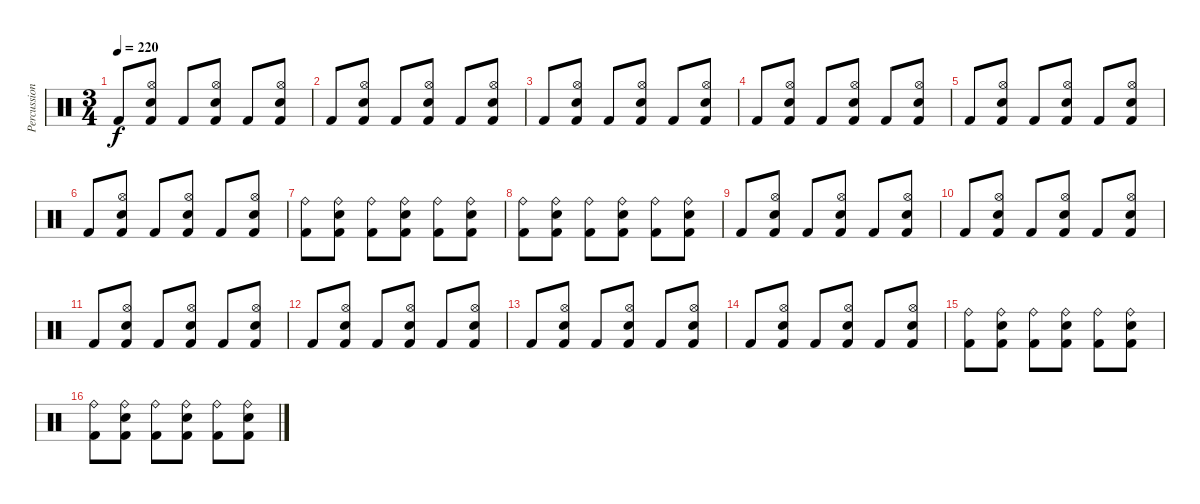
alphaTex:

\track ("Percussion" "Percussion") {instrument percussion}
\staff {score}
\articulation defaults
\ts (3 4)
\tempo 220
\clef neutral
\ks c "Kick (hit) 2".8{dy f}
("Hi-Hat (open)" "Electric Snare (hit)" "Kick (hit) 2").8 "Kick (hit) 2".8 ("Hi-Hat (open)" "Electric Snare (hit)" "Kick (hit) 2").8 "Kick (hit) 2".8 ("Hi-Hat (open)" "Electric Snare (hit)" "Kick (hit) 2").8 |
"Kick (hit) 2".8 ("Hi-Hat (open)" "Electric Snare (hit)" "Kick (hit) 2").8 "Kick (hit) 2".8 ("Hi-Hat (open)" "Electric Snare (hit)" "Kick (hit) 2").8 "Kick (hit) 2".8 ("Hi-Hat (open)" "Electric Snare (hit)" "Kick (hit) 2").8 |
"Kick (hit) 2".8 ("Hi-Hat (open)" "Electric Snare (hit)" "Kick (hit) 2").8 "Kick (hit) 2".8 ("Hi-Hat (open)" "Electric Snare (hit)" "Kick (hit) 2").8 "Kick (hit) 2".8 ("Hi-Hat (open)" "Electric Snare (hit)" "Kick (hit) 2").8 |
"Kick (hit) 2".8 ("Hi-Hat (open)" "Electric Snare (hit)" "Kick (hit) 2").8 "Kick (hit) 2".8 ("Hi-Hat (open)" "Electric Snare (hit)" "Kick (hit) 2").8 "Kick (hit) 2".8 ("Hi-Hat (open)" "Electric Snare (hit)" "Kick (hit) 2").8 |
"Kick (hit) 2".8 ("Hi-Hat (open)" "Electric Snare (hit)" "Kick (hit) 2").8 "Kick (hit) 2".8 ("Hi-Hat (open)" "Electric Snare (hit)" "Kick (hit) 2").8 "Kick (hit) 2".8 ("Hi-Hat (open)" "Electric Snare (hit)" "Kick (hit) 2").8 |
"Kick (hit) 2".8 ("Hi-Hat (open)" "Electric Snare (hit)" "Kick (hit) 2").8 "Kick (hit) 2".8 ("Hi-Hat (open)" "Electric Snare (hit)" "Kick (hit) 2").8 "Kick (hit) 2".8 ("Hi-Hat (open)" "Electric Snare (hit)" "Kick (hit) 2").8 |
("Ride (bell)" "Kick (hit) 2").8 ("Ride (bell)" "Electric Snare (hit)" "Kick (hit) 2").8 ("Ride (bell)" "Kick (hit) 2").8 ("Ride (bell)" "Electric Snare (hit)" "Kick (hit) 2").8 ("Ride (bell)" "Kick (hit) 2").8 ("Ride (bell)" "Electric Snare (hit)" "Kick (hit) 2").8 |
("Ride (bell)" "Kick (hit) 2").8 ("Ride (bell)" "Electric Snare (hit)" "Kick (hit) 2").8 ("Ride (bell)" "Kick (hit) 2").8 ("Ride (bell)" "Electric Snare (hit)" "Kick (hit) 2").8 ("Ride (bell)" "Kick (hit) 2").8 ("Ride (bell)" "Electric Snare (hit)" "Kick (hit) 2").8 |
"Kick (hit) 2".8 ("Hi-Hat (open)" "Electric Snare (hit)" "Kick (hit) 2").8 "Kick (hit) 2".8 ("Hi-Hat (open)" "Electric Snare (hit)" "Kick (hit) 2").8 "Kick (hit) 2".8 ("Hi-Hat (open)" "Electric Snare (hit)" "Kick (hit) 2").8 |
"Kick (hit) 2".8 ("Hi-Hat (open)" "Electric Snare (hit)" "Kick (hit) 2").8 "Kick (hit) 2".8 ("Hi-Hat (open)" "Electric Snare (hit)" "Kick (hit) 2").8 "Kick (hit) 2".8 ("Hi-Hat (open)" "Electric Snare (hit)" "Kick (hit) 2").8 |
"Kick (hit) 2".8 ("Hi-Hat (open)" "Electric Snare (hit)" "Kick (hit) 2").8 "Kick (hit) 2".8 ("Hi-Hat (open)" "Electric Snare (hit)" "Kick (hit) 2").8 "Kick (hit) 2".8 ("Hi-Hat (open)" "Electric Snare (hit)" "Kick (hit) 2").8 |
"Kick (hit) 2".8 ("Hi-Hat (open)" "Electric Snare (hit)" "Kick (hit) 2").8 "Kick (hit) 2".8 ("Hi-Hat (open)" "Electric Snare (hit)" "Kick (hit) 2").8 "Kick (hit) 2".8 ("Hi-Hat (open)" "Electric Snare (hit)" "Kick (hit) 2").8 |
"Kick (hit) 2".8 ("Hi-Hat (open)" "Electric Snare (hit)" "Kick (hit) 2").8 "Kick (hit) 2".8 ("Hi-Hat (open)" "Electric Snare (hit)" "Kick (hit) 2").8 "Kick (hit) 2".8 ("Hi-Hat (open)" "Electric Snare (hit)" "Kick (hit) 2").8 |
"Kick (hit) 2".8 ("Hi-Hat (open)" "Electric Snare (hit)" "Kick (hit) 2").8 "Kick (hit) 2".8 ("Hi-Hat (open)" "Electric Snare (hit)" "Kick (hit) 2").8 "Kick (hit) 2".8 ("Hi-Hat (open)" "Electric Snare (hit)" "Kick (hit) 2").8 |
("Ride (bell)" "Kick (hit) 2").8 ("Ride (bell)" "Electric Snare (hit)" "Kick (hit) 2").8 ("Ride (bell)" "Kick (hit) 2").8 ("Ride (bell)" "Electric Snare (hit)" "Kick (hit) 2").8 ("Ride (bell)" "Kick (hit) 2").8 ("Ride (bell)" "Electric Snare (hit)" "Kick (hit) 2").8 |
("Ride (bell)" "Kick (hit) 2").8 ("Ride (bell)" "Electric Snare (hit)" "Kick (hit) 2").8 ("Ride (bell)" "Kick (hit) 2").8 ("Ride (bell)" "Electric Snare (hit)" "Kick (hit) 2").8 ("Ride (bell)" "Kick (hit) 2").8 ("Ride (bell)" "Electric Snare (hit)" "Kick (hit) 2").8
